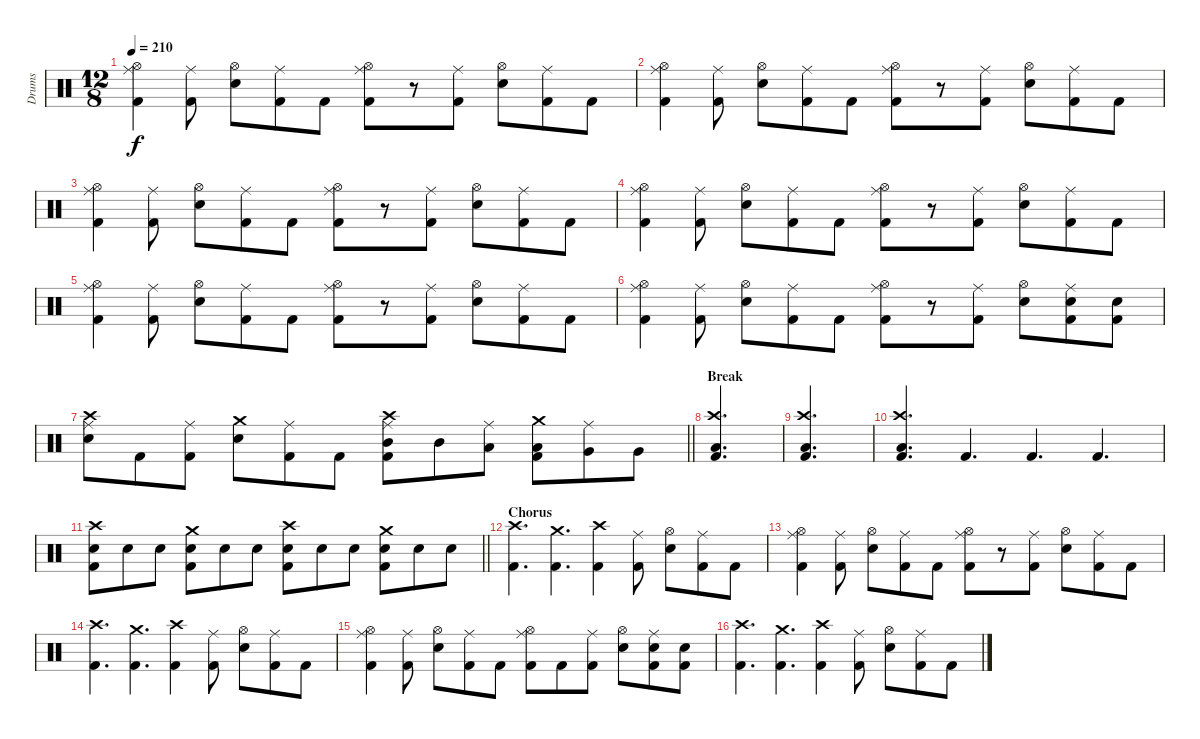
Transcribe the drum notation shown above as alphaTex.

\track ("Drums" "Drums") {instrument percussion}
\staff {score}
\articulation defaults
\ts (12 8)
\tempo 210
\clef neutral
\ks c
("Ride (middle)" "Hi-Hat (open)" "Kick (hit) 2").4{dy f} ("Ride (middle)" "Kick (hit) 2").8 ("Hi-Hat (open)" "Snare (hit) 2").8 ("Ride (middle)" "Kick (hit) 2").8 "Kick (hit) 2".8 ("Ride (middle)" "Hi-Hat (open)" "Kick (hit) 2").8 r.8 ("Ride (middle)" "Kick (hit) 2").8 ("Hi-Hat (open)" "Snare (hit) 2").8 ("Ride (middle)" "Kick (hit) 2").8 "Kick (hit) 2".8 |
("Ride (middle)" "Hi-Hat (open)" "Kick (hit) 2").4 ("Ride (middle)" "Kick (hit) 2").8 ("Hi-Hat (open)" "Snare (hit) 2").8 ("Ride (middle)" "Kick (hit) 2").8 "Kick (hit) 2".8 ("Ride (middle)" "Hi-Hat (open)" "Kick (hit) 2").8 r.8 ("Ride (middle)" "Kick (hit) 2").8 ("Hi-Hat (open)" "Snare (hit) 2").8 ("Ride (middle)" "Kick (hit) 2").8 "Kick (hit) 2".8 |
("Ride (middle)" "Hi-Hat (open)" "Kick (hit) 2").4 ("Ride (middle)" "Kick (hit) 2").8 ("Hi-Hat (open)" "Snare (hit) 2").8 ("Ride (middle)" "Kick (hit) 2").8 "Kick (hit) 2".8 ("Ride (middle)" "Hi-Hat (open)" "Kick (hit) 2").8 r.8 ("Ride (middle)" "Kick (hit) 2").8 ("Hi-Hat (open)" "Snare (hit) 2").8 ("Ride (middle)" "Kick (hit) 2").8 "Kick (hit) 2".8 |
("Ride (middle)" "Hi-Hat (open)" "Kick (hit) 2").4 ("Ride (middle)" "Kick (hit) 2").8 ("Hi-Hat (open)" "Snare (hit) 2").8 ("Ride (middle)" "Kick (hit) 2").8 "Kick (hit) 2".8 ("Ride (middle)" "Hi-Hat (open)" "Kick (hit) 2").8 r.8 ("Ride (middle)" "Kick (hit) 2").8 ("Hi-Hat (open)" "Snare (hit) 2").8 ("Ride (middle)" "Kick (hit) 2").8 "Kick (hit) 2".8 |
("Ride (middle)" "Hi-Hat (open)" "Kick (hit) 2").4 ("Ride (middle)" "Kick (hit) 2").8 ("Hi-Hat (open)" "Snare (hit) 2").8 ("Ride (middle)" "Kick (hit) 2").8 "Kick (hit) 2".8 ("Ride (middle)" "Hi-Hat (open)" "Kick (hit) 2").8 r.8 ("Ride (middle)" "Kick (hit) 2").8 ("Hi-Hat (open)" "Snare (hit) 2").8 ("Ride (middle)" "Kick (hit) 2").8 "Kick (hit) 2".8 |
("Ride (middle)" "Hi-Hat (open)" "Kick (hit) 2").4 ("Ride (middle)" "Kick (hit) 2").8 ("Hi-Hat (open)" "Snare (hit) 2").8 ("Ride (middle)" "Kick (hit) 2").8 "Kick (hit) 2".8 ("Ride (middle)" "Hi-Hat (open)" "Kick (hit) 2").8 r.8 ("Ride (middle)" "Kick (hit) 2").8 ("Hi-Hat (open)" "Snare (hit) 2").8 ("Ride (middle)" "Snare (hit) 2" "Kick (hit) 2").8 ("Snare (hit) 2" "Kick (hit) 2").8 |
\barLineRight lightlight
("Crash high (hit)" "Ride (middle)" "Snare (hit) 2").8 "Kick (hit) 2".8 ("Ride (middle)" "Kick (hit) 2").8 ("Crash medium (hit)" "Snare (hit) 2").8 ("Ride (middle)" "Kick (hit) 2").8 "Kick (hit) 2".8 ("Crash high (hit)" "Ride (middle)" "Mid Tom (hit)" "Kick (hit) 2").8 "Mid Tom (hit)".8 ("Ride (middle)" "Low Tom (hit)").8 ("Crash medium (hit)" "Low Tom (hit)" "Kick (hit) 2").8 ("Ride (middle)" "Very Low Tom (hit)").8 "Very Low Tom (hit)".8 |
\section ("" "Break")
("Crash high (hit)" "Low Floor Tom (hit)" "Kick (hit) 2").4{d} |
("Crash high (hit)" "Low Floor Tom (hit)" "Kick (hit) 2").4{d} |
("Crash high (hit)" "Low Floor Tom (hit)" "Kick (hit) 2").4{d} "Kick (hit) 2".4{d} "Kick (hit) 2".4{d} "Kick (hit) 2".4{d} |
\barLineRight lightlight
("Crash high (hit)" "Snare (hit) 2" "Kick (hit) 2").8 "Snare (hit) 2".8 "Snare (hit) 2".8 ("Crash medium (hit)" "Snare (hit) 2" "Kick (hit) 2").8 "Snare (hit) 2".8 "Snare (hit) 2".8 ("Crash high (hit)" "Snare (hit) 2" "Kick (hit) 2").8 "Snare (hit) 2".8 "Snare (hit) 2".8 ("Crash medium (hit)" "Snare (hit) 2" "Kick (hit) 2").8 "Snare (hit) 2".8 "Snare (hit) 2".8 |
\section ("" "Chorus")
("Crash high (hit)" "Kick (hit) 2").4{d} ("Crash medium (hit)" "Kick (hit) 2").4{d} ("Crash high (hit)" "Kick (hit) 2").4 ("Ride (middle)" "Kick (hit) 2").8 ("Hi-Hat (open)" "Snare (hit) 2").8 ("Ride (middle)" "Kick (hit) 2").8 "Kick (hit) 2".8 |
("Ride (middle)" "Hi-Hat (open)" "Kick (hit) 2").4 ("Ride (middle)" "Kick (hit) 2").8 ("Hi-Hat (open)" "Snare (hit) 2").8 ("Ride (middle)" "Kick (hit) 2").8 "Kick (hit) 2".8 ("Ride (middle)" "Hi-Hat (open)" "Kick (hit) 2").8 r.8 ("Ride (middle)" "Kick (hit) 2").8 ("Hi-Hat (open)" "Snare (hit) 2").8 ("Ride (middle)" "Kick (hit) 2").8 "Kick (hit) 2".8 |
("Crash high (hit)" "Kick (hit) 2").4{d} ("Crash medium (hit)" "Kick (hit) 2").4{d} ("Crash high (hit)" "Kick (hit) 2").4 ("Ride (middle)" "Kick (hit) 2").8 ("Hi-Hat (open)" "Snare (hit) 2").8 ("Ride (middle)" "Kick (hit) 2").8 "Kick (hit) 2".8 |
("Ride (middle)" "Hi-Hat (open)" "Kick (hit) 2").4 ("Ride (middle)" "Kick (hit) 2").8 ("Hi-Hat (open)" "Snare (hit) 2").8 ("Ride (middle)" "Kick (hit) 2").8 "Kick (hit) 2".8 ("Ride (middle)" "Hi-Hat (open)" "Kick (hit) 2").8 "Kick (hit) 2".8 ("Ride (middle)" "Kick (hit) 2").8 ("Hi-Hat (open)" "Snare (hit) 2").8 ("Ride (middle)" "Snare (hit) 2" "Kick (hit) 2").8 ("Snare (hit) 2" "Kick (hit) 2").8 |
("Crash high (hit)" "Kick (hit) 2").4{d} ("Crash medium (hit)" "Kick (hit) 2").4{d} ("Crash high (hit)" "Kick (hit) 2").4 ("Ride (middle)" "Kick (hit) 2").8 ("Hi-Hat (open)" "Snare (hit) 2").8 ("Ride (middle)" "Kick (hit) 2").8 "Kick (hit) 2".8
